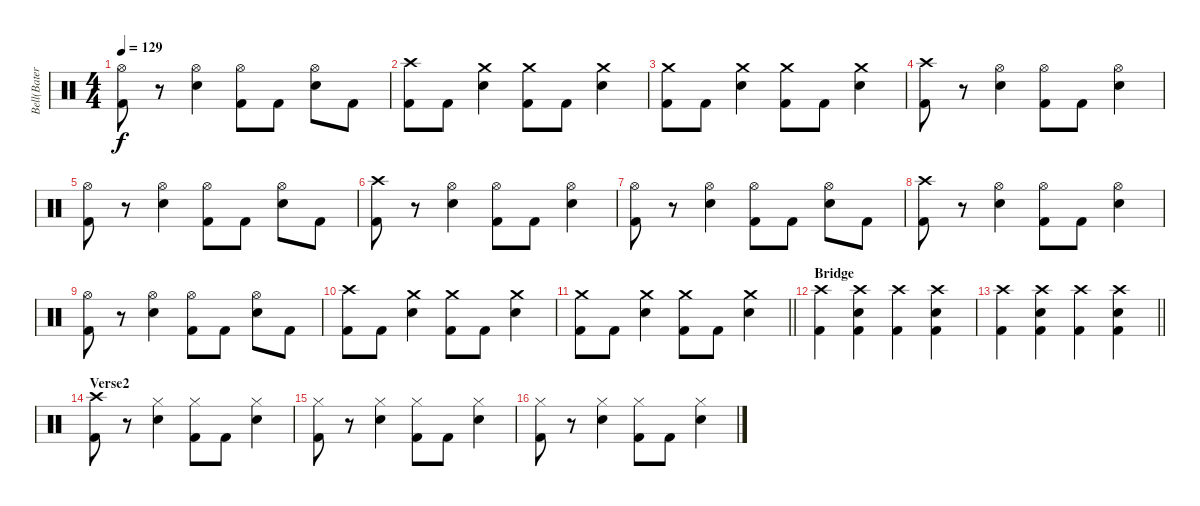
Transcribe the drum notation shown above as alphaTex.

\track ("Bell(Bateria)" "Bell(Bater") {instrument percussion}
\staff {score}
\articulation defaults
\ts (4 4)
\tempo 129
\clef neutral
\ks c
("Hi-Hat (open)" "Kick (hit) 2").8{dy f} r.8 ("Hi-Hat (open)" "Electric Snare (hit)").4 ("Hi-Hat (open)" "Kick (hit) 2").8 "Kick (hit) 2".8 ("Hi-Hat (open)" "Electric Snare (hit)").8 "Kick (hit) 2".8 |
("Crash high (hit)" "Kick (hit) 2").8 "Kick (hit) 2".8 ("Crash medium (hit)" "Electric Snare (hit)").4 ("Crash medium (hit)" "Kick (hit) 2").8 "Kick (hit) 2".8 ("Crash medium (hit)" "Electric Snare (hit)").4 |
("Crash medium (hit)" "Kick (hit) 2").8 "Kick (hit) 2".8 ("Crash medium (hit)" "Electric Snare (hit)").4 ("Crash medium (hit)" "Kick (hit) 2").8 "Kick (hit) 2".8 ("Crash medium (hit)" "Electric Snare (hit)").4 |
("Crash high (hit)" "Kick (hit) 2").8 r.8 ("Hi-Hat (open)" "Electric Snare (hit)").4 ("Hi-Hat (open)" "Kick (hit) 2").8 "Kick (hit) 2".8 ("Hi-Hat (open)" "Electric Snare (hit)").4 |
("Hi-Hat (open)" "Kick (hit) 2").8 r.8 ("Hi-Hat (open)" "Electric Snare (hit)").4 ("Hi-Hat (open)" "Kick (hit) 2").8 "Kick (hit) 2".8 ("Hi-Hat (open)" "Electric Snare (hit)").8 "Kick (hit) 2".8 |
("Crash high (hit)" "Kick (hit) 2").8 r.8 ("Hi-Hat (open)" "Electric Snare (hit)").4 ("Hi-Hat (open)" "Kick (hit) 2").8 "Kick (hit) 2".8 ("Hi-Hat (open)" "Electric Snare (hit)").4 |
("Hi-Hat (open)" "Kick (hit) 2").8 r.8 ("Hi-Hat (open)" "Electric Snare (hit)").4 ("Hi-Hat (open)" "Kick (hit) 2").8 "Kick (hit) 2".8 ("Hi-Hat (open)" "Electric Snare (hit)").8 "Kick (hit) 2".8 |
("Crash high (hit)" "Kick (hit) 2").8 r.8 ("Hi-Hat (open)" "Electric Snare (hit)").4 ("Hi-Hat (open)" "Kick (hit) 2").8 "Kick (hit) 2".8 ("Hi-Hat (open)" "Electric Snare (hit)").4 |
("Hi-Hat (open)" "Kick (hit) 2").8 r.8 ("Hi-Hat (open)" "Electric Snare (hit)").4 ("Hi-Hat (open)" "Kick (hit) 2").8 "Kick (hit) 2".8 ("Hi-Hat (open)" "Electric Snare (hit)").8 "Kick (hit) 2".8 |
("Crash high (hit)" "Kick (hit) 2").8 "Kick (hit) 2".8 ("Crash medium (hit)" "Electric Snare (hit)").4 ("Crash medium (hit)" "Kick (hit) 2").8 "Kick (hit) 2".8 ("Crash medium (hit)" "Electric Snare (hit)").4 |
\barLineRight lightlight
("Crash medium (hit)" "Kick (hit) 2").8 "Kick (hit) 2".8 ("Crash medium (hit)" "Electric Snare (hit)").4 ("Crash medium (hit)" "Kick (hit) 2").8 "Kick (hit) 2".8 ("Crash medium (hit)" "Electric Snare (hit)").4 |
\section ("" "Bridge")
("Crash high (hit)" "Kick (hit) 2").4 ("Crash high (hit)" "Electric Snare (hit)" "Kick (hit) 2").4 ("Crash high (hit)" "Kick (hit) 2").4 ("Crash high (hit)" "Electric Snare (hit)" "Kick (hit) 2").4 |
\barLineRight lightlight
("Crash high (hit)" "Kick (hit) 2").4 ("Crash high (hit)" "Electric Snare (hit)" "Kick (hit) 2").4 ("Crash high (hit)" "Kick (hit) 2").4 ("Crash high (hit)" "Electric Snare (hit)" "Kick (hit) 2").4 |
\section ("" "Verse2")
("Crash high (hit)" "Kick (hit) 2").8 r.8 ("Hi-Hat (closed)" "Electric Snare (hit)").4 ("Hi-Hat (closed)" "Kick (hit) 2").8 "Kick (hit) 2".8 ("Hi-Hat (closed)" "Electric Snare (hit)").4 |
("Hi-Hat (closed)" "Kick (hit) 2").8 r.8 ("Hi-Hat (closed)" "Electric Snare (hit)").4 ("Hi-Hat (closed)" "Kick (hit) 2").8 "Kick (hit) 2".8 ("Hi-Hat (closed)" "Electric Snare (hit)").4 |
("Hi-Hat (closed)" "Kick (hit) 2").8 r.8 ("Hi-Hat (closed)" "Electric Snare (hit)").4 ("Hi-Hat (closed)" "Kick (hit) 2").8 "Kick (hit) 2".8 ("Hi-Hat (closed)" "Electric Snare (hit)").4
